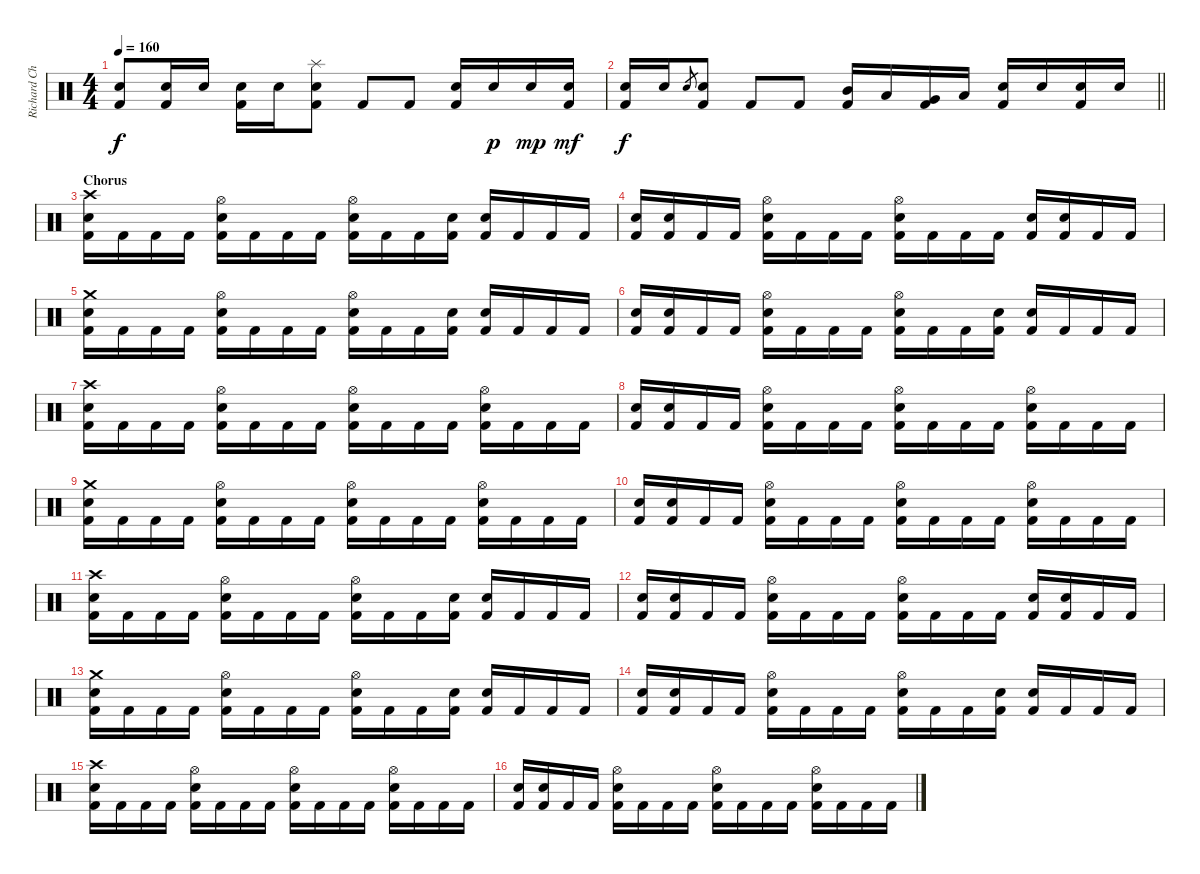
\track ("Richard Christy" "Richard Ch") {instrument percussion}
\staff {score}
\articulation defaults
\ts (4 4)
\tempo 160
\clef neutral
\ks c
("Snare (hit) 2" "Kick (hit) 2").8{dy f} ("Snare (hit) 2" "Kick (hit) 2").16 "Snare (hit) 2".16 ("Snare (hit) 2" "Kick (hit) 2").16 "Snare (hit) 2".16 ("Splash (hit)" "Snare (hit) 2" "Kick (hit) 2").8 "Kick (hit) 2".8 "Kick (hit) 2".8 ("Snare (hit) 2" "Kick (hit) 2").16 "Snare (hit) 2".16{dy p} "Snare (hit) 2".16{dy mp} ("Snare (hit) 2" "Kick (hit) 2").16{dy mf} |
\barLineRight lightlight
("Snare (hit) 2" "Kick (hit) 2").16{dy f} "Snare (hit) 2".16 "Snare (hit) 2".8{gr} ("Snare (hit) 2" "Kick (hit) 2").8 "Kick (hit) 2".8 "Kick (hit) 2".8 ("Mid Tom (hit)" "Kick (hit) 2").16 "Low Tom (hit)".16 ("Very Low Tom (hit)" "Kick (hit) 2").16 "Low Floor Tom (hit)".16 ("Snare (hit) 2" "Kick (hit) 2").16 "Snare (hit) 2".16 ("Snare (hit) 2" "Kick (hit) 2").16 "Snare (hit) 2".16 |
\section ("" "Chorus")
("Crash high (hit)" "Snare (hit) 2" "Kick (hit) 2").16 "Kick (hit) 2".16 "Kick (hit) 2".16 "Kick (hit) 2".16 ("Hi-Hat (open)" "Snare (hit) 2" "Kick (hit) 2").16 "Kick (hit) 2".16 "Kick (hit) 2".16 "Kick (hit) 2".16 ("Hi-Hat (open)" "Snare (hit) 2" "Kick (hit) 2").16 "Kick (hit) 2".16 "Kick (hit) 2".16 ("Snare (hit) 2" "Kick (hit) 2").16 ("Snare (hit) 2" "Kick (hit) 2").16 "Kick (hit) 2".16 "Kick (hit) 2".16 "Kick (hit) 2".16 |
("Snare (hit) 2" "Kick (hit) 2").16 ("Snare (hit) 2" "Kick (hit) 2").16 "Kick (hit) 2".16 "Kick (hit) 2".16 ("Hi-Hat (open)" "Snare (hit) 2" "Kick (hit) 2").16 "Kick (hit) 2".16 "Kick (hit) 2".16 "Kick (hit) 2".16 ("Hi-Hat (open)" "Snare (hit) 2" "Kick (hit) 2").16 "Kick (hit) 2".16 "Kick (hit) 2".16 "Kick (hit) 2".16 ("Snare (hit) 2" "Kick (hit) 2").16 ("Snare (hit) 2" "Kick (hit) 2").16 "Kick (hit) 2".16 "Kick (hit) 2".16 |
("Crash medium (hit)" "Snare (hit) 2" "Kick (hit) 2").16 "Kick (hit) 2".16 "Kick (hit) 2".16 "Kick (hit) 2".16 ("Hi-Hat (open)" "Snare (hit) 2" "Kick (hit) 2").16 "Kick (hit) 2".16 "Kick (hit) 2".16 "Kick (hit) 2".16 ("Hi-Hat (open)" "Snare (hit) 2" "Kick (hit) 2").16 "Kick (hit) 2".16 "Kick (hit) 2".16 ("Snare (hit) 2" "Kick (hit) 2").16 ("Snare (hit) 2" "Kick (hit) 2").16 "Kick (hit) 2".16 "Kick (hit) 2".16 "Kick (hit) 2".16 |
("Snare (hit) 2" "Kick (hit) 2").16 ("Snare (hit) 2" "Kick (hit) 2").16 "Kick (hit) 2".16 "Kick (hit) 2".16 ("Hi-Hat (open)" "Snare (hit) 2" "Kick (hit) 2").16 "Kick (hit) 2".16 "Kick (hit) 2".16 "Kick (hit) 2".16 ("Hi-Hat (open)" "Snare (hit) 2" "Kick (hit) 2").16 "Kick (hit) 2".16 "Kick (hit) 2".16 ("Snare (hit) 2" "Kick (hit) 2").16 ("Snare (hit) 2" "Kick (hit) 2").16 "Kick (hit) 2".16 "Kick (hit) 2".16 "Kick (hit) 2".16 |
("Crash high (hit)" "Snare (hit) 2" "Kick (hit) 2").16 "Kick (hit) 2".16 "Kick (hit) 2".16 "Kick (hit) 2".16 ("Hi-Hat (open)" "Snare (hit) 2" "Kick (hit) 2").16 "Kick (hit) 2".16 "Kick (hit) 2".16 "Kick (hit) 2".16 ("Hi-Hat (open)" "Snare (hit) 2" "Kick (hit) 2").16 "Kick (hit) 2".16 "Kick (hit) 2".16 "Kick (hit) 2".16 ("Hi-Hat (open)" "Snare (hit) 2" "Kick (hit) 2").16 "Kick (hit) 2".16 "Kick (hit) 2".16 "Kick (hit) 2".16 |
("Snare (hit) 2" "Kick (hit) 2").16 ("Snare (hit) 2" "Kick (hit) 2").16 "Kick (hit) 2".16 "Kick (hit) 2".16 ("Hi-Hat (open)" "Snare (hit) 2" "Kick (hit) 2").16 "Kick (hit) 2".16 "Kick (hit) 2".16 "Kick (hit) 2".16 ("Hi-Hat (open)" "Snare (hit) 2" "Kick (hit) 2").16 "Kick (hit) 2".16 "Kick (hit) 2".16 "Kick (hit) 2".16 ("Hi-Hat (open)" "Snare (hit) 2" "Kick (hit) 2").16 "Kick (hit) 2".16 "Kick (hit) 2".16 "Kick (hit) 2".16 |
("Crash medium (hit)" "Snare (hit) 2" "Kick (hit) 2").16 "Kick (hit) 2".16 "Kick (hit) 2".16 "Kick (hit) 2".16 ("Hi-Hat (open)" "Snare (hit) 2" "Kick (hit) 2").16 "Kick (hit) 2".16 "Kick (hit) 2".16 "Kick (hit) 2".16 ("Hi-Hat (open)" "Snare (hit) 2" "Kick (hit) 2").16 "Kick (hit) 2".16 "Kick (hit) 2".16 "Kick (hit) 2".16 ("Hi-Hat (open)" "Snare (hit) 2" "Kick (hit) 2").16 "Kick (hit) 2".16 "Kick (hit) 2".16 "Kick (hit) 2".16 |
("Snare (hit) 2" "Kick (hit) 2").16 ("Snare (hit) 2" "Kick (hit) 2").16 "Kick (hit) 2".16 "Kick (hit) 2".16 ("Hi-Hat (open)" "Snare (hit) 2" "Kick (hit) 2").16 "Kick (hit) 2".16 "Kick (hit) 2".16 "Kick (hit) 2".16 ("Hi-Hat (open)" "Snare (hit) 2" "Kick (hit) 2").16 "Kick (hit) 2".16 "Kick (hit) 2".16 "Kick (hit) 2".16 ("Hi-Hat (open)" "Snare (hit) 2" "Kick (hit) 2").16 "Kick (hit) 2".16 "Kick (hit) 2".16 "Kick (hit) 2".16 |
("Crash high (hit)" "Snare (hit) 2" "Kick (hit) 2").16 "Kick (hit) 2".16 "Kick (hit) 2".16 "Kick (hit) 2".16 ("Hi-Hat (open)" "Snare (hit) 2" "Kick (hit) 2").16 "Kick (hit) 2".16 "Kick (hit) 2".16 "Kick (hit) 2".16 ("Hi-Hat (open)" "Snare (hit) 2" "Kick (hit) 2").16 "Kick (hit) 2".16 "Kick (hit) 2".16 ("Snare (hit) 2" "Kick (hit) 2").16 ("Snare (hit) 2" "Kick (hit) 2").16 "Kick (hit) 2".16 "Kick (hit) 2".16 "Kick (hit) 2".16 |
("Snare (hit) 2" "Kick (hit) 2").16 ("Snare (hit) 2" "Kick (hit) 2").16 "Kick (hit) 2".16 "Kick (hit) 2".16 ("Hi-Hat (open)" "Snare (hit) 2" "Kick (hit) 2").16 "Kick (hit) 2".16 "Kick (hit) 2".16 "Kick (hit) 2".16 ("Hi-Hat (open)" "Snare (hit) 2" "Kick (hit) 2").16 "Kick (hit) 2".16 "Kick (hit) 2".16 "Kick (hit) 2".16 ("Snare (hit) 2" "Kick (hit) 2").16 ("Snare (hit) 2" "Kick (hit) 2").16 "Kick (hit) 2".16 "Kick (hit) 2".16 |
("Crash medium (hit)" "Snare (hit) 2" "Kick (hit) 2").16 "Kick (hit) 2".16 "Kick (hit) 2".16 "Kick (hit) 2".16 ("Hi-Hat (open)" "Snare (hit) 2" "Kick (hit) 2").16 "Kick (hit) 2".16 "Kick (hit) 2".16 "Kick (hit) 2".16 ("Hi-Hat (open)" "Snare (hit) 2" "Kick (hit) 2").16 "Kick (hit) 2".16 "Kick (hit) 2".16 ("Snare (hit) 2" "Kick (hit) 2").16 ("Snare (hit) 2" "Kick (hit) 2").16 "Kick (hit) 2".16 "Kick (hit) 2".16 "Kick (hit) 2".16 |
("Snare (hit) 2" "Kick (hit) 2").16 ("Snare (hit) 2" "Kick (hit) 2").16 "Kick (hit) 2".16 "Kick (hit) 2".16 ("Hi-Hat (open)" "Snare (hit) 2" "Kick (hit) 2").16 "Kick (hit) 2".16 "Kick (hit) 2".16 "Kick (hit) 2".16 ("Hi-Hat (open)" "Snare (hit) 2" "Kick (hit) 2").16 "Kick (hit) 2".16 "Kick (hit) 2".16 ("Snare (hit) 2" "Kick (hit) 2").16 ("Snare (hit) 2" "Kick (hit) 2").16 "Kick (hit) 2".16 "Kick (hit) 2".16 "Kick (hit) 2".16 |
("Crash high (hit)" "Snare (hit) 2" "Kick (hit) 2").16 "Kick (hit) 2".16 "Kick (hit) 2".16 "Kick (hit) 2".16 ("Hi-Hat (open)" "Snare (hit) 2" "Kick (hit) 2").16 "Kick (hit) 2".16 "Kick (hit) 2".16 "Kick (hit) 2".16 ("Hi-Hat (open)" "Snare (hit) 2" "Kick (hit) 2").16 "Kick (hit) 2".16 "Kick (hit) 2".16 "Kick (hit) 2".16 ("Hi-Hat (open)" "Snare (hit) 2" "Kick (hit) 2").16 "Kick (hit) 2".16 "Kick (hit) 2".16 "Kick (hit) 2".16 |
("Snare (hit) 2" "Kick (hit) 2").16 ("Snare (hit) 2" "Kick (hit) 2").16 "Kick (hit) 2".16 "Kick (hit) 2".16 ("Hi-Hat (open)" "Snare (hit) 2" "Kick (hit) 2").16 "Kick (hit) 2".16 "Kick (hit) 2".16 "Kick (hit) 2".16 ("Hi-Hat (open)" "Snare (hit) 2" "Kick (hit) 2").16 "Kick (hit) 2".16 "Kick (hit) 2".16 "Kick (hit) 2".16 ("Hi-Hat (open)" "Snare (hit) 2" "Kick (hit) 2").16 "Kick (hit) 2".16 "Kick (hit) 2".16 "Kick (hit) 2".16
